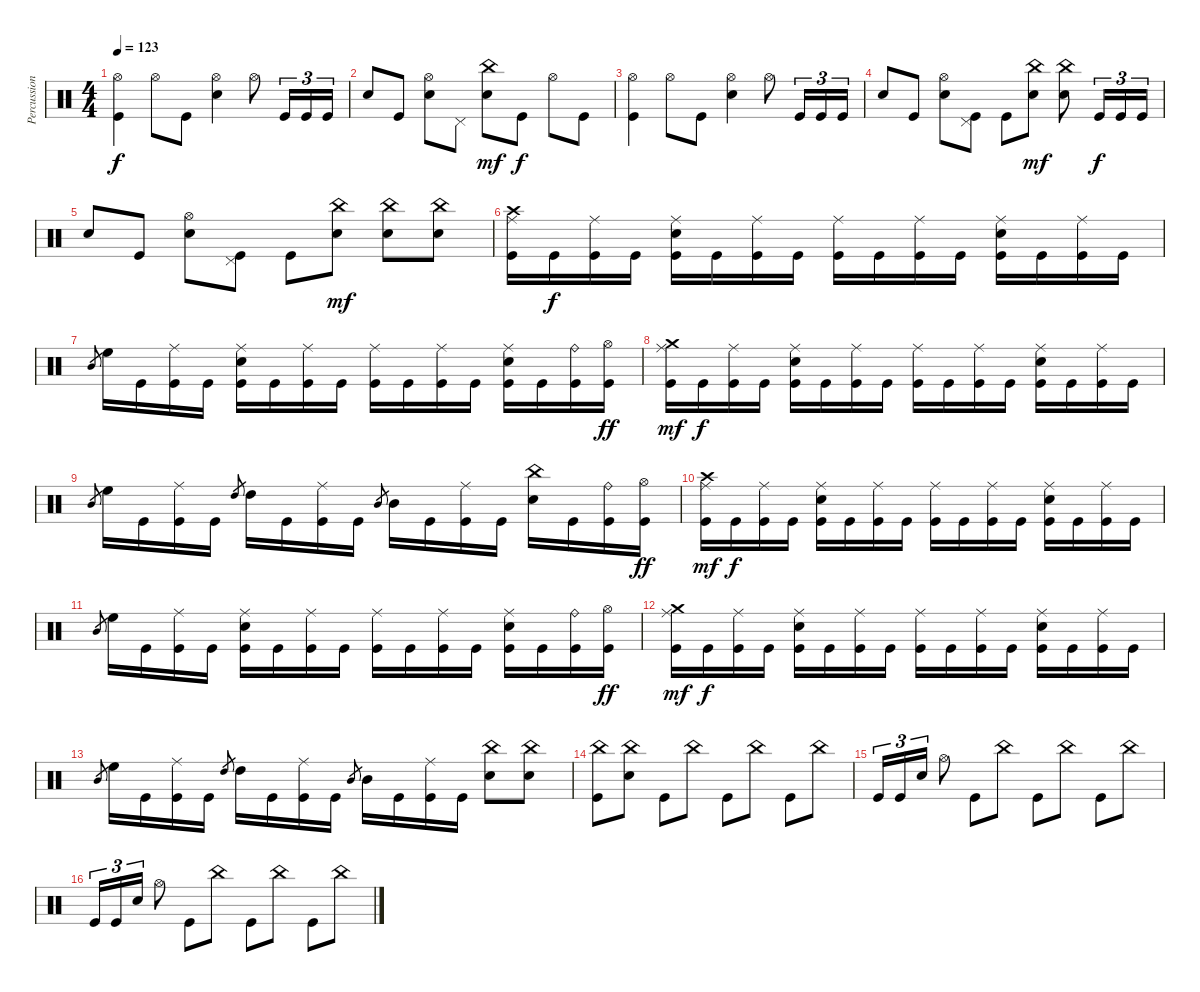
\track ("Percussions" "Percussion") {instrument percussion}
\staff {score}
\articulation defaults
\ts (4 4)
\tempo 123
\clef neutral
\ks c
("Hi-Hat (open)" "Kick (hit)").4{dy f} "Hi-Hat (open)".8 "Kick (hit)".8 ("Hi-Hat (open)" "Electric Snare (hit)").4 "Hi-Hat (open)".8 "Kick (hit)".16{tu (3 2)} "Kick (hit)".16{tu (3 2)} "Kick (hit)".16{tu (3 2)} |
"Electric Snare (hit)".8 "Kick (hit)".8 ("Hi-Hat (open)" "Electric Snare (hit)").8 "Pedal Hi-Hat (hit)".8 ("China (hit)" "Electric Snare (hit)").8{dy mf} "Kick (hit)".8{dy f} "Hi-Hat (open)".8 "Kick (hit)".8 |
("Hi-Hat (open)" "Kick (hit)").4 "Hi-Hat (open)".8 "Kick (hit)".8 ("Hi-Hat (open)" "Electric Snare (hit)").4 "Hi-Hat (open)".8 "Kick (hit)".16{tu (3 2)} "Kick (hit)".16{tu (3 2)} "Kick (hit)".16{tu (3 2)} |
"Electric Snare (hit)".8 "Kick (hit)".8 ("Hi-Hat (open)" "Electric Snare (hit)").8 ("Pedal Hi-Hat (hit)" "Kick (hit)").8 "Kick (hit)".8 ("China (hit)" "Electric Snare (hit)").8{dy mf} ("China (hit)" "Electric Snare (hit)").8 "Kick (hit)".16{tu (3 2) dy f} "Kick (hit)".16{tu (3 2)} "Kick (hit)".16{tu (3 2)} |
"Electric Snare (hit)".8 "Kick (hit)".8 ("Hi-Hat (open)" "Electric Snare (hit)").8 ("Pedal Hi-Hat (hit)" "Kick (hit)").8 "Kick (hit)".8 ("China (hit)" "Electric Snare (hit)").8{dy mf} ("China (hit)" "Electric Snare (hit)").8 ("China (hit)" "Electric Snare (hit)").8 |
("Crash high (hit)" "Ride (middle)" "Kick (hit)").16 "Kick (hit)".16{dy f} ("Ride (middle)" "Kick (hit)").16 "Kick (hit)".16 ("Ride (middle)" "Electric Snare (hit)" "Kick (hit)").16 "Kick (hit)".16 ("Ride (middle)" "Kick (hit)").16 "Kick (hit)".16 ("Ride (middle)" "Kick (hit)").16 "Kick (hit)".16 ("Ride (middle)" "Kick (hit)").16 "Kick (hit)".16 ("Ride (middle)" "Electric Snare (hit)" "Kick (hit)").16 "Kick (hit)".16 ("Ride (middle)" "Kick (hit)").16 "Kick (hit)".16 |
"Mid Tom (hit)".8{gr} "High Floor Tom (hit)".16 "Kick (hit)".16 ("Ride (middle)" "Kick (hit)").16 "Kick (hit)".16 ("Ride (middle)" "Electric Snare (hit)" "Kick (hit)").16 "Kick (hit)".16 ("Ride (middle)" "Kick (hit)").16 "Kick (hit)".16 ("Ride (middle)" "Kick (hit)").16 "Kick (hit)".16 ("Ride (middle)" "Kick (hit)").16 "Kick (hit)".16 ("Ride (middle)" "Electric Snare (hit)" "Kick (hit)").16 "Kick (hit)".16 ("Ride (bell)" "Kick (hit)").16 ("Hi-Hat (open)" "Kick (hit)").16{dy ff} |
("Crash medium (hit)" "Ride (middle)" "Kick (hit)").16{dy mf} "Kick (hit)".16{dy f} ("Ride (middle)" "Kick (hit)").16 "Kick (hit)".16 ("Ride (middle)" "Electric Snare (hit)" "Kick (hit)").16 "Kick (hit)".16 ("Ride (middle)" "Kick (hit)").16 "Kick (hit)".16 ("Ride (middle)" "Kick (hit)").16 "Kick (hit)".16 ("Ride (middle)" "Kick (hit)").16 "Kick (hit)".16 ("Ride (middle)" "Electric Snare (hit)" "Kick (hit)").16 "Kick (hit)".16 ("Ride (middle)" "Kick (hit)").16 "Kick (hit)".16 |
"Mid Tom (hit)".8{gr} "High Floor Tom (hit)".16 "Kick (hit)".16 ("Ride (middle)" "Kick (hit)").16 "Kick (hit)".16 "High Tom (hit)".8{gr} "High Tom (hit)".16 "Kick (hit)".16 ("Ride (middle)" "Kick (hit)").16 "Kick (hit)".16 "Mid Tom (hit)".8{gr} "Mid Tom (hit)".16 "Kick (hit)".16 ("Ride (middle)" "Kick (hit)").16 "Kick (hit)".16 ("China (hit)" "Electric Snare (hit)").16 "Kick (hit)".16 ("Ride (bell)" "Kick (hit)").16 ("Hi-Hat (open)" "Kick (hit)").16{dy ff} |
("Crash high (hit)" "Ride (middle)" "Kick (hit)").16{dy mf} "Kick (hit)".16{dy f} ("Ride (middle)" "Kick (hit)").16 "Kick (hit)".16 ("Ride (middle)" "Electric Snare (hit)" "Kick (hit)").16 "Kick (hit)".16 ("Ride (middle)" "Kick (hit)").16 "Kick (hit)".16 ("Ride (middle)" "Kick (hit)").16 "Kick (hit)".16 ("Ride (middle)" "Kick (hit)").16 "Kick (hit)".16 ("Ride (middle)" "Electric Snare (hit)" "Kick (hit)").16 "Kick (hit)".16 ("Ride (middle)" "Kick (hit)").16 "Kick (hit)".16 |
"Mid Tom (hit)".8{gr} "High Floor Tom (hit)".16 "Kick (hit)".16 ("Ride (middle)" "Kick (hit)").16 "Kick (hit)".16 ("Ride (middle)" "Electric Snare (hit)" "Kick (hit)").16 "Kick (hit)".16 ("Ride (middle)" "Kick (hit)").16 "Kick (hit)".16 ("Ride (middle)" "Kick (hit)").16 "Kick (hit)".16 ("Ride (middle)" "Kick (hit)").16 "Kick (hit)".16 ("Ride (middle)" "Electric Snare (hit)" "Kick (hit)").16 "Kick (hit)".16 ("Ride (bell)" "Kick (hit)").16 ("Hi-Hat (open)" "Kick (hit)").16{dy ff} |
("Crash medium (hit)" "Ride (middle)" "Kick (hit)").16{dy mf} "Kick (hit)".16{dy f} ("Ride (middle)" "Kick (hit)").16 "Kick (hit)".16 ("Ride (middle)" "Electric Snare (hit)" "Kick (hit)").16 "Kick (hit)".16 ("Ride (middle)" "Kick (hit)").16 "Kick (hit)".16 ("Ride (middle)" "Kick (hit)").16 "Kick (hit)".16 ("Ride (middle)" "Kick (hit)").16 "Kick (hit)".16 ("Ride (middle)" "Electric Snare (hit)" "Kick (hit)").16 "Kick (hit)".16 ("Ride (middle)" "Kick (hit)").16 "Kick (hit)".16 |
"Mid Tom (hit)".8{gr} "High Floor Tom (hit)".16 "Kick (hit)".16 ("Ride (middle)" "Kick (hit)").16 "Kick (hit)".16 "High Tom (hit)".8{gr} "High Tom (hit)".16 "Kick (hit)".16 ("Ride (middle)" "Kick (hit)").16 "Kick (hit)".16 "Mid Tom (hit)".8{gr} "Mid Tom (hit)".16 "Kick (hit)".16 ("Ride (middle)" "Kick (hit)").16 "Kick (hit)".16 ("China (hit)" "Electric Snare (hit)").8 ("China (hit)" "Electric Snare (hit)").8 |
("China (hit)" "Kick (hit)").8 ("China (hit)" "Electric Snare (hit)").8 "Kick (hit)".8 "China (hit)".8 "Kick (hit)".8 "China (hit)".8 "Kick (hit)".8 "China (hit)".8 |
"Kick (hit)".16{tu (3 2)} "Kick (hit)".16{tu (3 2)} "Electric Snare (hit)".16{tu (3 2)} "Hi-Hat (open)".8 "Kick (hit)".8 "China (hit)".8 "Kick (hit)".8 "China (hit)".8 "Kick (hit)".8 "China (hit)".8 |
"Kick (hit)".16{tu (3 2)} "Kick (hit)".16{tu (3 2)} "Electric Snare (hit)".16{tu (3 2)} "Hi-Hat (open)".8 "Kick (hit)".8 "China (hit)".8 "Kick (hit)".8 "China (hit)".8 "Kick (hit)".8 "China (hit)".8
